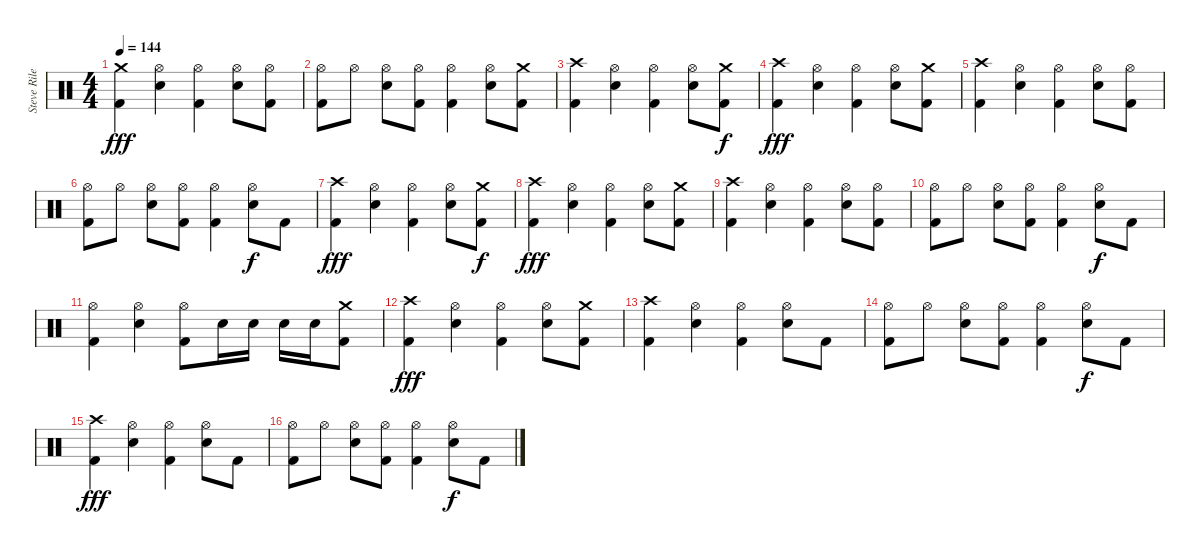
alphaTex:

\track ("Steve Riley" "Steve Rile") {instrument percussion}
\staff {score}
\articulation defaults
\ts (4 4)
\tempo 144
\clef neutral
\ks c
("Crash medium (hit)" "Kick (hit) 2").4{dy fff} ("Hi-Hat (open)" "Snare (hit) 2").4 ("Hi-Hat (open)" "Kick (hit) 2").4 ("Hi-Hat (open)" "Snare (hit) 2").8 ("Hi-Hat (open)" "Kick (hit) 2").8 |
("Hi-Hat (open)" "Kick (hit) 2").8 "Hi-Hat (open)".8 ("Hi-Hat (open)" "Snare (hit) 2").8 ("Hi-Hat (open)" "Kick (hit) 2").8 ("Hi-Hat (open)" "Kick (hit) 2").4 ("Hi-Hat (open)" "Snare (hit) 2").8 ("Crash medium (hit)" "Kick (hit) 2").8 |
("Crash high (hit)" "Kick (hit) 2").4 ("Hi-Hat (open)" "Snare (hit) 2").4 ("Hi-Hat (open)" "Kick (hit) 2").4 ("Hi-Hat (open)" "Snare (hit) 2").8 ("Crash medium (hit)" "Kick (hit) 2").8{dy f} |
("Crash high (hit)" "Kick (hit) 2").4{dy fff} ("Hi-Hat (open)" "Snare (hit) 2").4 ("Hi-Hat (open)" "Kick (hit) 2").4 ("Hi-Hat (open)" "Snare (hit) 2").8 ("Crash medium (hit)" "Kick (hit) 2").8 |
("Crash high (hit)" "Kick (hit) 2").4 ("Hi-Hat (open)" "Snare (hit) 2").4 ("Hi-Hat (open)" "Kick (hit) 2").4 ("Hi-Hat (open)" "Snare (hit) 2").8 ("Hi-Hat (open)" "Kick (hit) 2").8 |
("Hi-Hat (open)" "Kick (hit) 2").8 "Hi-Hat (open)".8 ("Hi-Hat (open)" "Snare (hit) 2").8 ("Hi-Hat (open)" "Kick (hit) 2").8 ("Hi-Hat (open)" "Kick (hit) 2").4 ("Hi-Hat (open)" "Snare (hit) 2").8{dy f} "Kick (hit) 2".8 |
("Crash high (hit)" "Kick (hit) 2").4{dy fff} ("Hi-Hat (open)" "Snare (hit) 2").4 ("Hi-Hat (open)" "Kick (hit) 2").4 ("Hi-Hat (open)" "Snare (hit) 2").8 ("Crash medium (hit)" "Kick (hit) 2").8{dy f} |
("Crash high (hit)" "Kick (hit) 2").4{dy fff} ("Hi-Hat (open)" "Snare (hit) 2").4 ("Hi-Hat (open)" "Kick (hit) 2").4 ("Hi-Hat (open)" "Snare (hit) 2").8 ("Crash medium (hit)" "Kick (hit) 2").8 |
("Crash high (hit)" "Kick (hit) 2").4 ("Hi-Hat (open)" "Snare (hit) 2").4 ("Hi-Hat (open)" "Kick (hit) 2").4 ("Hi-Hat (open)" "Snare (hit) 2").8 ("Hi-Hat (open)" "Kick (hit) 2").8 |
("Hi-Hat (open)" "Kick (hit) 2").8 "Hi-Hat (open)".8 ("Hi-Hat (open)" "Snare (hit) 2").8 ("Hi-Hat (open)" "Kick (hit) 2").8 ("Hi-Hat (open)" "Kick (hit) 2").4 ("Hi-Hat (open)" "Snare (hit) 2").8{dy f} "Kick (hit) 2".8 |
("Hi-Hat (open)" "Kick (hit) 2").4 ("Hi-Hat (open)" "Snare (hit) 2").4 ("Hi-Hat (open)" "Kick (hit) 2").8 "Snare (hit) 2".16 "Snare (hit) 2".16 "Snare (hit) 2".16 "Snare (hit) 2".16 ("Crash medium (hit)" "Kick (hit) 2").8 |
("Crash high (hit)" "Kick (hit) 2").4{dy fff} ("Hi-Hat (open)" "Snare (hit) 2").4 ("Hi-Hat (open)" "Kick (hit) 2").4 ("Hi-Hat (open)" "Snare (hit) 2").8 ("Crash medium (hit)" "Kick (hit) 2").8 |
("Crash high (hit)" "Kick (hit) 2").4 ("Hi-Hat (open)" "Snare (hit) 2").4 ("Hi-Hat (open)" "Kick (hit) 2").4 ("Hi-Hat (open)" "Snare (hit) 2").8 "Kick (hit) 2".8 |
("Hi-Hat (open)" "Kick (hit) 2").8 "Hi-Hat (open)".8 ("Hi-Hat (open)" "Snare (hit) 2").8 ("Hi-Hat (open)" "Kick (hit) 2").8 ("Hi-Hat (open)" "Kick (hit) 2").4 ("Hi-Hat (open)" "Snare (hit) 2").8{dy f} "Kick (hit) 2".8 |
("Crash high (hit)" "Kick (hit) 2").4{dy fff} ("Hi-Hat (open)" "Snare (hit) 2").4 ("Hi-Hat (open)" "Kick (hit) 2").4 ("Hi-Hat (open)" "Snare (hit) 2").8 "Kick (hit) 2".8 |
("Hi-Hat (open)" "Kick (hit) 2").8 "Hi-Hat (open)".8 ("Hi-Hat (open)" "Snare (hit) 2").8 ("Hi-Hat (open)" "Kick (hit) 2").8 ("Hi-Hat (open)" "Kick (hit) 2").4 ("Hi-Hat (open)" "Snare (hit) 2").8{dy f} "Kick (hit) 2".8
